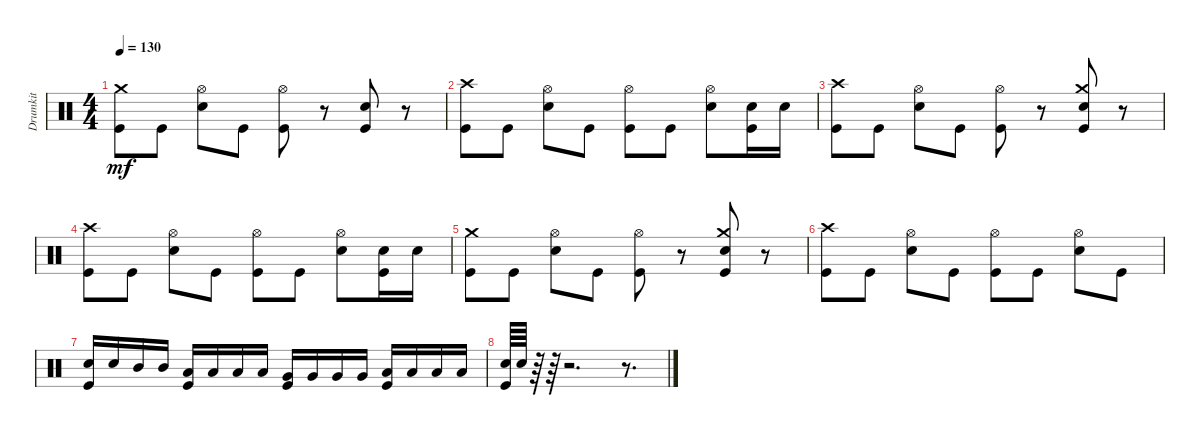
\track ("Drumkit" "Drumkit") {instrument percussion}
\staff {score}
\articulation defaults
\ts (4 4)
\tempo 130
\clef neutral
\ks c
("Kick (hit)" "Crash medium (hit)").8{dy mf} "Kick (hit)".8 ("Snare (hit) 2" "Hi-Hat (open)").8 "Kick (hit)".8 ("Kick (hit)" "Hi-Hat (open)").8 r.8 ("Snare (hit) 2" "Kick (hit)").8 r.8 |
("Kick (hit)" "Crash high (hit)").8 "Kick (hit)".8 ("Snare (hit) 2" "Hi-Hat (open)").8 "Kick (hit)".8 ("Kick (hit)" "Hi-Hat (open)").8 "Kick (hit)".8 ("Snare (hit) 2" "Hi-Hat (open)").8 ("Snare (hit) 2" "Kick (hit)").16 "Snare (hit) 2".16 |
("Kick (hit)" "Crash high (hit)").8 "Kick (hit)".8 ("Snare (hit) 2" "Hi-Hat (open)").8 "Kick (hit)".8 ("Kick (hit)" "Hi-Hat (open)").8 r.8 ("Snare (hit) 2" "Kick (hit)" "Crash medium (hit)").8 r.8 |
("Kick (hit)" "Crash high (hit)").8 "Kick (hit)".8 ("Snare (hit) 2" "Hi-Hat (open)").8 "Kick (hit)".8 ("Kick (hit)" "Hi-Hat (open)").8 "Kick (hit)".8 ("Snare (hit) 2" "Hi-Hat (open)").8 ("Snare (hit) 2" "Kick (hit)").16 "Snare (hit) 2".16 |
("Kick (hit)" "Crash medium (hit)").8 "Kick (hit)".8 ("Snare (hit) 2" "Hi-Hat (open)").8 "Kick (hit)".8 ("Kick (hit)" "Hi-Hat (open)").8 r.8 ("Snare (hit) 2" "Kick (hit)" "Crash medium (hit)").8 r.8 |
("Kick (hit)" "Crash high (hit)").8 "Kick (hit)".8 ("Snare (hit) 2" "Hi-Hat (open)").8 "Kick (hit)".8 ("Kick (hit)" "Hi-Hat (open)").8 "Kick (hit)".8 ("Snare (hit) 2" "Hi-Hat (open)").8 "Kick (hit)".8 |
("Snare (hit) 2" "Kick (hit)").16 "Snare (hit) 2".16 "Mid Tom (hit)".16 "Mid Tom (hit)".16 ("Low Tom (hit)" "Kick (hit)").16 "Low Tom (hit)".16 "Low Tom (hit)".16 "Low Tom (hit)".16 ("Very Low Tom (hit)" "Kick (hit)").16 "Very Low Tom (hit)".16 "Very Low Tom (hit)".16 "Very Low Tom (hit)".16 ("Low Floor Tom (hit)" "Kick (hit)").16 "Low Floor Tom (hit)".16 "Low Floor Tom (hit)".16 "Low Floor Tom (hit)".16 |
("Snare (hit) 2" "Kick (hit)").64 "Snare (hit) 2".64 r.64 r.64 r.2{d} r.8{d}
